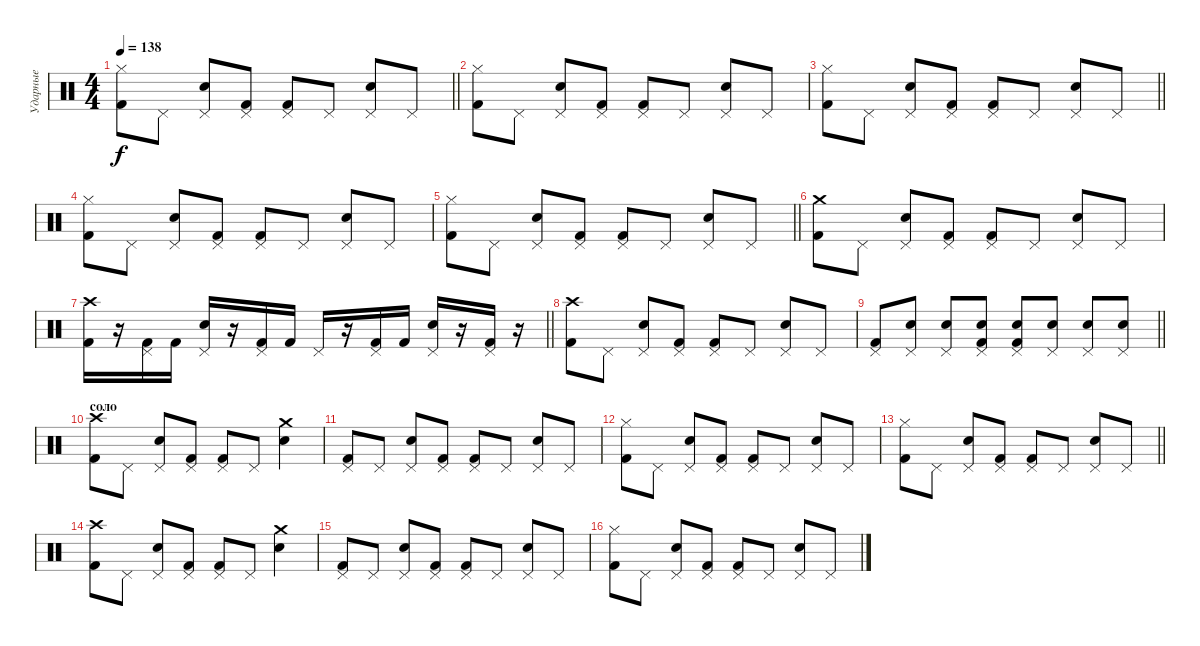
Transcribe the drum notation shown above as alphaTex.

\track ("Ударные" "Ударные") {instrument percussion}
\staff {score}
\articulation defaults
\ts (4 4)
\tempo 138
\clef neutral
\barLineRight lightlight
\ks c
("Hi-Hat (closed)" "Kick (hit) 2").8{dy f} "Pedal Hi-Hat (hit)".8 ("Pedal Hi-Hat (hit)" "Electric Snare (hit)").8 ("Pedal Hi-Hat (hit)" "Kick (hit) 2").8 ("Pedal Hi-Hat (hit)" "Kick (hit) 2").8 "Pedal Hi-Hat (hit)".8 ("Pedal Hi-Hat (hit)" "Electric Snare (hit)").8 "Pedal Hi-Hat (hit)".8 |
("Hi-Hat (closed)" "Kick (hit) 2").8 "Pedal Hi-Hat (hit)".8 ("Pedal Hi-Hat (hit)" "Electric Snare (hit)").8 ("Pedal Hi-Hat (hit)" "Kick (hit) 2").8 ("Pedal Hi-Hat (hit)" "Kick (hit) 2").8 "Pedal Hi-Hat (hit)".8 ("Pedal Hi-Hat (hit)" "Electric Snare (hit)").8 "Pedal Hi-Hat (hit)".8 |
\barLineRight lightlight
("Hi-Hat (closed)" "Kick (hit) 2").8 "Pedal Hi-Hat (hit)".8 ("Pedal Hi-Hat (hit)" "Electric Snare (hit)").8 ("Pedal Hi-Hat (hit)" "Kick (hit) 2").8 ("Pedal Hi-Hat (hit)" "Kick (hit) 2").8 "Pedal Hi-Hat (hit)".8 ("Pedal Hi-Hat (hit)" "Electric Snare (hit)").8 "Pedal Hi-Hat (hit)".8 |
("Hi-Hat (closed)" "Kick (hit) 2").8 "Pedal Hi-Hat (hit)".8 ("Pedal Hi-Hat (hit)" "Electric Snare (hit)").8 ("Pedal Hi-Hat (hit)" "Kick (hit) 2").8 ("Pedal Hi-Hat (hit)" "Kick (hit) 2").8 "Pedal Hi-Hat (hit)".8 ("Pedal Hi-Hat (hit)" "Electric Snare (hit)").8 "Pedal Hi-Hat (hit)".8 |
\barLineRight lightlight
("Hi-Hat (closed)" "Kick (hit) 2").8 "Pedal Hi-Hat (hit)".8 ("Pedal Hi-Hat (hit)" "Electric Snare (hit)").8 ("Pedal Hi-Hat (hit)" "Kick (hit) 2").8 ("Pedal Hi-Hat (hit)" "Kick (hit) 2").8 "Pedal Hi-Hat (hit)".8 ("Pedal Hi-Hat (hit)" "Electric Snare (hit)").8 "Pedal Hi-Hat (hit)".8 |
("Crash medium (hit)" "Kick (hit) 2").8 "Pedal Hi-Hat (hit)".8 ("Pedal Hi-Hat (hit)" "Electric Snare (hit)").8 ("Pedal Hi-Hat (hit)" "Kick (hit) 2").8 ("Pedal Hi-Hat (hit)" "Kick (hit) 2").8 "Pedal Hi-Hat (hit)".8 ("Pedal Hi-Hat (hit)" "Electric Snare (hit)").8 "Pedal Hi-Hat (hit)".8 |
\barLineRight lightlight
("Crash high (hit)" "Kick (hit) 2").16 r.16 ("Pedal Hi-Hat (hit)" "Kick (hit) 2").16 "Kick (hit) 2".16 ("Pedal Hi-Hat (hit)" "Electric Snare (hit)").16 r.16 ("Pedal Hi-Hat (hit)" "Kick (hit) 2").16 "Kick (hit) 2".16 "Pedal Hi-Hat (hit)".16 r.16 ("Pedal Hi-Hat (hit)" "Kick (hit) 2").16 "Kick (hit) 2".16 ("Pedal Hi-Hat (hit)" "Electric Snare (hit)").16 r.16 ("Pedal Hi-Hat (hit)" "Kick (hit) 2").16 r.16 |
("Crash high (hit)" "Kick (hit) 2").8 "Pedal Hi-Hat (hit)".8 ("Pedal Hi-Hat (hit)" "Electric Snare (hit)").8 ("Pedal Hi-Hat (hit)" "Kick (hit) 2").8 ("Pedal Hi-Hat (hit)" "Kick (hit) 2").8 "Pedal Hi-Hat (hit)".8 ("Pedal Hi-Hat (hit)" "Electric Snare (hit)").8 "Pedal Hi-Hat (hit)".8 |
\barLineRight lightlight
("Pedal Hi-Hat (hit)" "Kick (hit) 2").8 ("Pedal Hi-Hat (hit)" "Electric Snare (hit)").8 ("Pedal Hi-Hat (hit)" "Electric Snare (hit)").8 ("Pedal Hi-Hat (hit)" "Electric Snare (hit)" "Kick (hit) 2").8 ("Pedal Hi-Hat (hit)" "Electric Snare (hit)" "Kick (hit) 2").8 ("Pedal Hi-Hat (hit)" "Electric Snare (hit)").8 ("Pedal Hi-Hat (hit)" "Electric Snare (hit)").8 ("Pedal Hi-Hat (hit)" "Electric Snare (hit)").8 |
\section ("" "соло")
("Crash high (hit)" "Kick (hit) 2").8 "Pedal Hi-Hat (hit)".8 ("Pedal Hi-Hat (hit)" "Electric Snare (hit)").8 ("Pedal Hi-Hat (hit)" "Kick (hit) 2").8 ("Pedal Hi-Hat (hit)" "Kick (hit) 2").8 "Pedal Hi-Hat (hit)".8 ("Crash medium (hit)" "Electric Snare (hit)").4 |
("Pedal Hi-Hat (hit)" "Kick (hit) 2").8 "Pedal Hi-Hat (hit)".8 ("Pedal Hi-Hat (hit)" "Electric Snare (hit)").8 ("Pedal Hi-Hat (hit)" "Kick (hit) 2").8 ("Pedal Hi-Hat (hit)" "Kick (hit) 2").8 "Pedal Hi-Hat (hit)".8 ("Pedal Hi-Hat (hit)" "Electric Snare (hit)").8 "Pedal Hi-Hat (hit)".8 |
("Hi-Hat (closed)" "Kick (hit) 2").8 "Pedal Hi-Hat (hit)".8 ("Pedal Hi-Hat (hit)" "Electric Snare (hit)").8 ("Pedal Hi-Hat (hit)" "Kick (hit) 2").8 ("Pedal Hi-Hat (hit)" "Kick (hit) 2").8 "Pedal Hi-Hat (hit)".8 ("Pedal Hi-Hat (hit)" "Electric Snare (hit)").8 "Pedal Hi-Hat (hit)".8 |
\barLineRight lightlight
("Hi-Hat (closed)" "Kick (hit) 2").8 "Pedal Hi-Hat (hit)".8 ("Pedal Hi-Hat (hit)" "Electric Snare (hit)").8 ("Pedal Hi-Hat (hit)" "Kick (hit) 2").8 ("Pedal Hi-Hat (hit)" "Kick (hit) 2").8 "Pedal Hi-Hat (hit)".8 ("Pedal Hi-Hat (hit)" "Electric Snare (hit)").8 "Pedal Hi-Hat (hit)".8 |
("Crash high (hit)" "Kick (hit) 2").8 "Pedal Hi-Hat (hit)".8 ("Pedal Hi-Hat (hit)" "Electric Snare (hit)").8 ("Pedal Hi-Hat (hit)" "Kick (hit) 2").8 ("Pedal Hi-Hat (hit)" "Kick (hit) 2").8 "Pedal Hi-Hat (hit)".8 ("Crash medium (hit)" "Electric Snare (hit)").4 |
("Pedal Hi-Hat (hit)" "Kick (hit) 2").8 "Pedal Hi-Hat (hit)".8 ("Pedal Hi-Hat (hit)" "Electric Snare (hit)").8 ("Pedal Hi-Hat (hit)" "Kick (hit) 2").8 ("Pedal Hi-Hat (hit)" "Kick (hit) 2").8 "Pedal Hi-Hat (hit)".8 ("Pedal Hi-Hat (hit)" "Electric Snare (hit)").8 "Pedal Hi-Hat (hit)".8 |
("Hi-Hat (closed)" "Kick (hit) 2").8 "Pedal Hi-Hat (hit)".8 ("Pedal Hi-Hat (hit)" "Electric Snare (hit)").8 ("Pedal Hi-Hat (hit)" "Kick (hit) 2").8 ("Pedal Hi-Hat (hit)" "Kick (hit) 2").8 "Pedal Hi-Hat (hit)".8 ("Pedal Hi-Hat (hit)" "Electric Snare (hit)").8 "Pedal Hi-Hat (hit)".8
